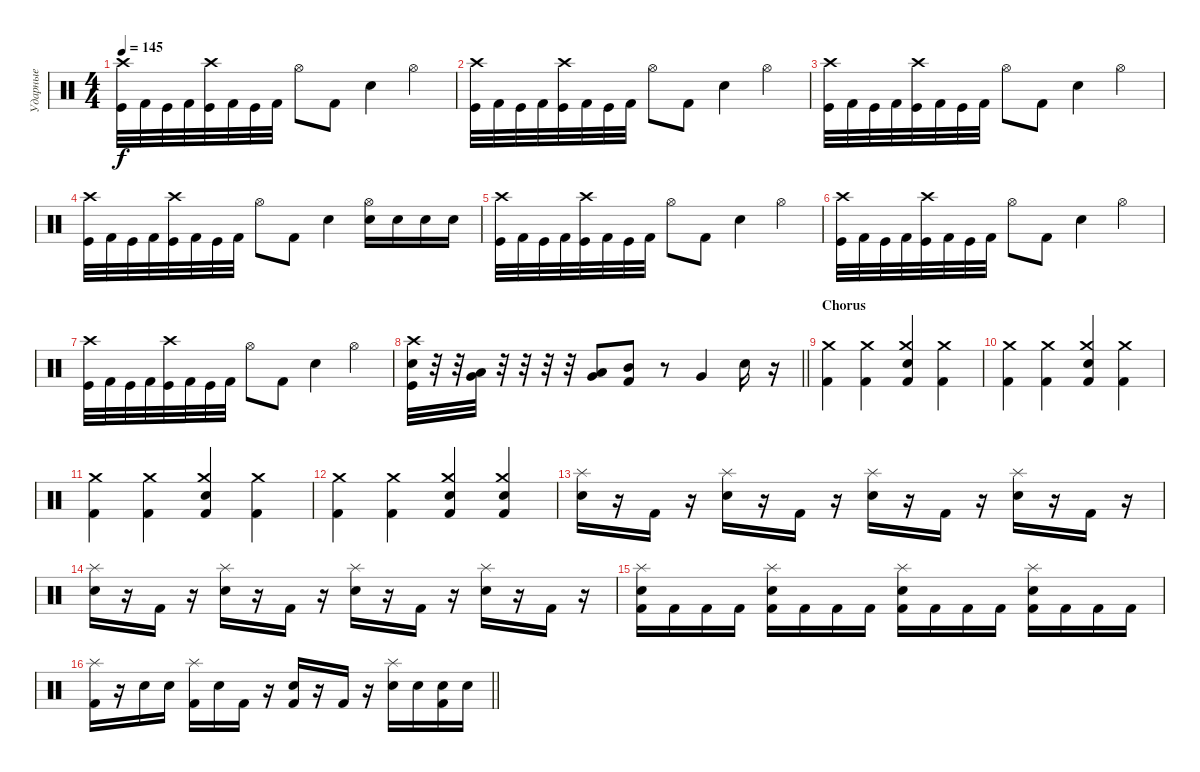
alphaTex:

\track ("Ударные" "Ударные") {instrument percussion}
\staff {score}
\articulation defaults
\ts (4 4)
\tempo 145
\clef neutral
\ks c
("Crash high (hit)" "Kick (hit)").32{dy f} "Kick (hit) 2".32 "Kick (hit)".32 "Kick (hit) 2".32 ("Crash high (hit)" "Kick (hit)").32 "Kick (hit) 2".32 "Kick (hit)".32 "Kick (hit) 2".32 "Hi-Hat (open)".8 "Kick (hit) 2".8 "Snare (hit) 2".4 "Hi-Hat (open)".4 |
("Crash high (hit)" "Kick (hit)").32 "Kick (hit) 2".32 "Kick (hit)".32 "Kick (hit) 2".32 ("Crash high (hit)" "Kick (hit)").32 "Kick (hit) 2".32 "Kick (hit)".32 "Kick (hit) 2".32 "Hi-Hat (open)".8 "Kick (hit) 2".8 "Snare (hit) 2".4 "Hi-Hat (open)".4 |
("Crash high (hit)" "Kick (hit)").32 "Kick (hit) 2".32 "Kick (hit)".32 "Kick (hit) 2".32 ("Crash high (hit)" "Kick (hit)").32 "Kick (hit) 2".32 "Kick (hit)".32 "Kick (hit) 2".32 "Hi-Hat (open)".8 "Kick (hit) 2".8 "Snare (hit) 2".4 "Hi-Hat (open)".4 |
("Crash high (hit)" "Kick (hit)").32 "Kick (hit) 2".32 "Kick (hit)".32 "Kick (hit) 2".32 ("Crash high (hit)" "Kick (hit)").32 "Kick (hit) 2".32 "Kick (hit)".32 "Kick (hit) 2".32 "Hi-Hat (open)".8 "Kick (hit) 2".8 "Snare (hit) 2".4 ("Hi-Hat (open)" "Snare (hit) 2").16 "Snare (hit) 2".16 "Snare (hit) 2".16 "Snare (hit) 2".16 |
("Crash high (hit)" "Kick (hit)").32 "Kick (hit) 2".32 "Kick (hit)".32 "Kick (hit) 2".32 ("Crash high (hit)" "Kick (hit)").32 "Kick (hit) 2".32 "Kick (hit)".32 "Kick (hit) 2".32 "Hi-Hat (open)".8 "Kick (hit) 2".8 "Snare (hit) 2".4 "Hi-Hat (open)".4 |
("Crash high (hit)" "Kick (hit)").32 "Kick (hit) 2".32 "Kick (hit)".32 "Kick (hit) 2".32 ("Crash high (hit)" "Kick (hit)").32 "Kick (hit) 2".32 "Kick (hit)".32 "Kick (hit) 2".32 "Hi-Hat (open)".8 "Kick (hit) 2".8 "Snare (hit) 2".4 "Hi-Hat (open)".4 |
("Crash high (hit)" "Kick (hit)").32 "Kick (hit) 2".32 "Kick (hit)".32 "Kick (hit) 2".32 ("Crash high (hit)" "Kick (hit)").32 "Kick (hit) 2".32 "Kick (hit)".32 "Kick (hit) 2".32 "Hi-Hat (open)".8 "Kick (hit) 2".8 "Snare (hit) 2".4 "Hi-Hat (open)".4 |
\barLineRight lightlight
("Crash high (hit)" "Snare (hit) 2" "Kick (hit)").32 r.32 r.32 ("Low Tom (hit)" "Very Low Tom (hit)").32 r.32 r.32 r.32 r.32 ("Low Tom (hit)" "Very Low Tom (hit)").8 ("Mid Tom (hit)" "Kick (hit) 2").8 r.8 "Very Low Tom (hit)".4 "Snare (hit) 2".16 r.16 |
\section ("" "Chorus")
("Crash medium (hit)" "Kick (hit) 2").4 ("Crash medium (hit)" "Kick (hit) 2").4 ("Crash medium (hit)" "Electric Snare (hit)" "Kick (hit) 2").4 ("Crash medium (hit)" "Kick (hit) 2").4 |
("Crash medium (hit)" "Kick (hit) 2").4 ("Crash medium (hit)" "Kick (hit) 2").4 ("Crash medium (hit)" "Electric Snare (hit)" "Kick (hit) 2").4 ("Crash medium (hit)" "Kick (hit) 2").4 |
("Crash medium (hit)" "Kick (hit) 2").4 ("Crash medium (hit)" "Kick (hit) 2").4 ("Crash medium (hit)" "Electric Snare (hit)" "Kick (hit) 2").4 ("Crash medium (hit)" "Kick (hit) 2").4 |
("Crash medium (hit)" "Kick (hit) 2").4 ("Crash medium (hit)" "Kick (hit) 2").4 ("Crash medium (hit)" "Electric Snare (hit)" "Kick (hit) 2").4 ("Crash medium (hit)" "Electric Snare (hit)" "Kick (hit) 2").4 |
("Splash (hit)" "Electric Snare (hit)").16 r.16 "Kick (hit) 2".16 r.16 ("Splash (hit)" "Electric Snare (hit)").16 r.16 "Kick (hit) 2".16 r.16 ("Splash (hit)" "Electric Snare (hit)").16 r.16 "Kick (hit) 2".16 r.16 ("Splash (hit)" "Electric Snare (hit)").16 r.16 "Kick (hit) 2".16 r.16 |
("Splash (hit)" "Electric Snare (hit)").16 r.16 "Kick (hit) 2".16 r.16 ("Splash (hit)" "Electric Snare (hit)").16 r.16 "Kick (hit) 2".16 r.16 ("Splash (hit)" "Electric Snare (hit)").16 r.16 "Kick (hit) 2".16 r.16 ("Splash (hit)" "Electric Snare (hit)").16 r.16 "Kick (hit) 2".16 r.16 |
("Splash (hit)" "Electric Snare (hit)" "Kick (hit) 2").16 "Kick (hit) 2".16 "Kick (hit) 2".16 "Kick (hit) 2".16 ("Splash (hit)" "Electric Snare (hit)" "Kick (hit) 2").16 "Kick (hit) 2".16 "Kick (hit) 2".16 "Kick (hit) 2".16 ("Splash (hit)" "Electric Snare (hit)" "Kick (hit) 2").16 "Kick (hit) 2".16 "Kick (hit) 2".16 "Kick (hit) 2".16 ("Splash (hit)" "Electric Snare (hit)" "Kick (hit) 2").16 "Kick (hit) 2".16 "Kick (hit) 2".16 "Kick (hit) 2".16 |
\barLineRight lightlight
("Splash (hit)" "Kick (hit) 2").16 r.16 "Electric Snare (hit)".16 "Electric Snare (hit)".16 ("Splash (hit)" "Kick (hit) 2").16 "Electric Snare (hit)".16 "Kick (hit) 2".16 r.16 ("Electric Snare (hit)" "Kick (hit) 2").16 r.16 "Kick (hit) 2".16 r.16 ("Splash (hit)" "Electric Snare (hit)").16 "Electric Snare (hit)".16 ("Electric Snare (hit)" "Kick (hit) 2").16 "Electric Snare (hit)".16
